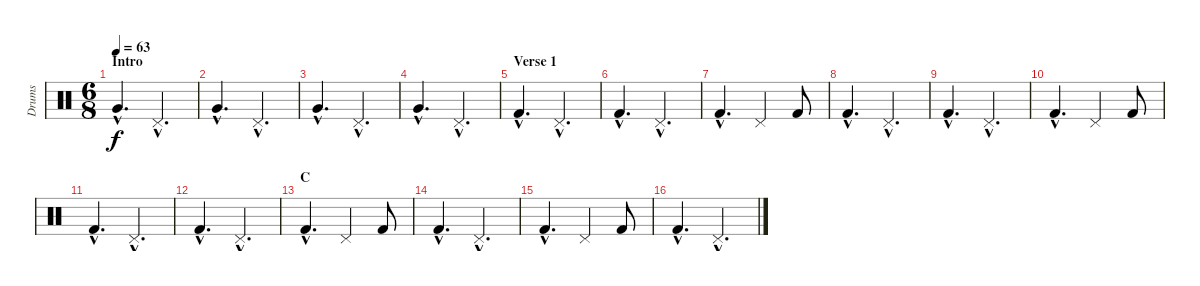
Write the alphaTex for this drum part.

\track ("Drums" "Drums") {instrument percussion}
\staff {score}
\articulation defaults
\ts (6 8)
\section ("" "Intro")
\tempo 63
\clef neutral
\ks c "Very Low Tom (hit)"{hac}.4{d dy f} "Pedal Hi-Hat (hit)"{hac}.4{d}
|
"Very Low Tom (hit)"{hac}.4{d} "Pedal Hi-Hat (hit)"{hac}.4{d} |
"Very Low Tom (hit)"{hac}.4{d} "Pedal Hi-Hat (hit)"{hac}.4{d} |
"Very Low Tom (hit)"{hac}.4{d} "Pedal Hi-Hat (hit)"{hac}.4{d} |
\section ("" "Verse 1")
"Kick (hit) 2"{hac}.4{d} "Pedal Hi-Hat (hit)"{hac}.4{d} |
"Kick (hit) 2"{hac}.4{d} "Pedal Hi-Hat (hit)"{hac}.4{d} |
"Kick (hit) 2"{hac}.4{d} "Pedal Hi-Hat (hit)".4 "Kick (hit) 2".8 |
"Kick (hit) 2"{hac}.4{d} "Pedal Hi-Hat (hit)"{hac}.4{d} |
"Kick (hit) 2"{hac}.4{d} "Pedal Hi-Hat (hit)"{hac}.4{d} |
"Kick (hit) 2"{hac}.4{d} "Pedal Hi-Hat (hit)".4 "Kick (hit) 2".8 |
"Kick (hit) 2"{hac}.4{d} "Pedal Hi-Hat (hit)"{hac}.4{d} |
"Kick (hit) 2"{hac}.4{d} "Pedal Hi-Hat (hit)"{hac}.4{d} |
\section ("" "C")
"Kick (hit) 2"{hac}.4{d} "Pedal Hi-Hat (hit)".4 "Kick (hit) 2".8 |
"Kick (hit) 2"{hac}.4{d} "Pedal Hi-Hat (hit)"{hac}.4{d} |
"Kick (hit) 2"{hac}.4{d} "Pedal Hi-Hat (hit)".4 "Kick (hit) 2".8 |
"Kick (hit) 2"{hac}.4{d} "Pedal Hi-Hat (hit)"{hac}.4{d}
